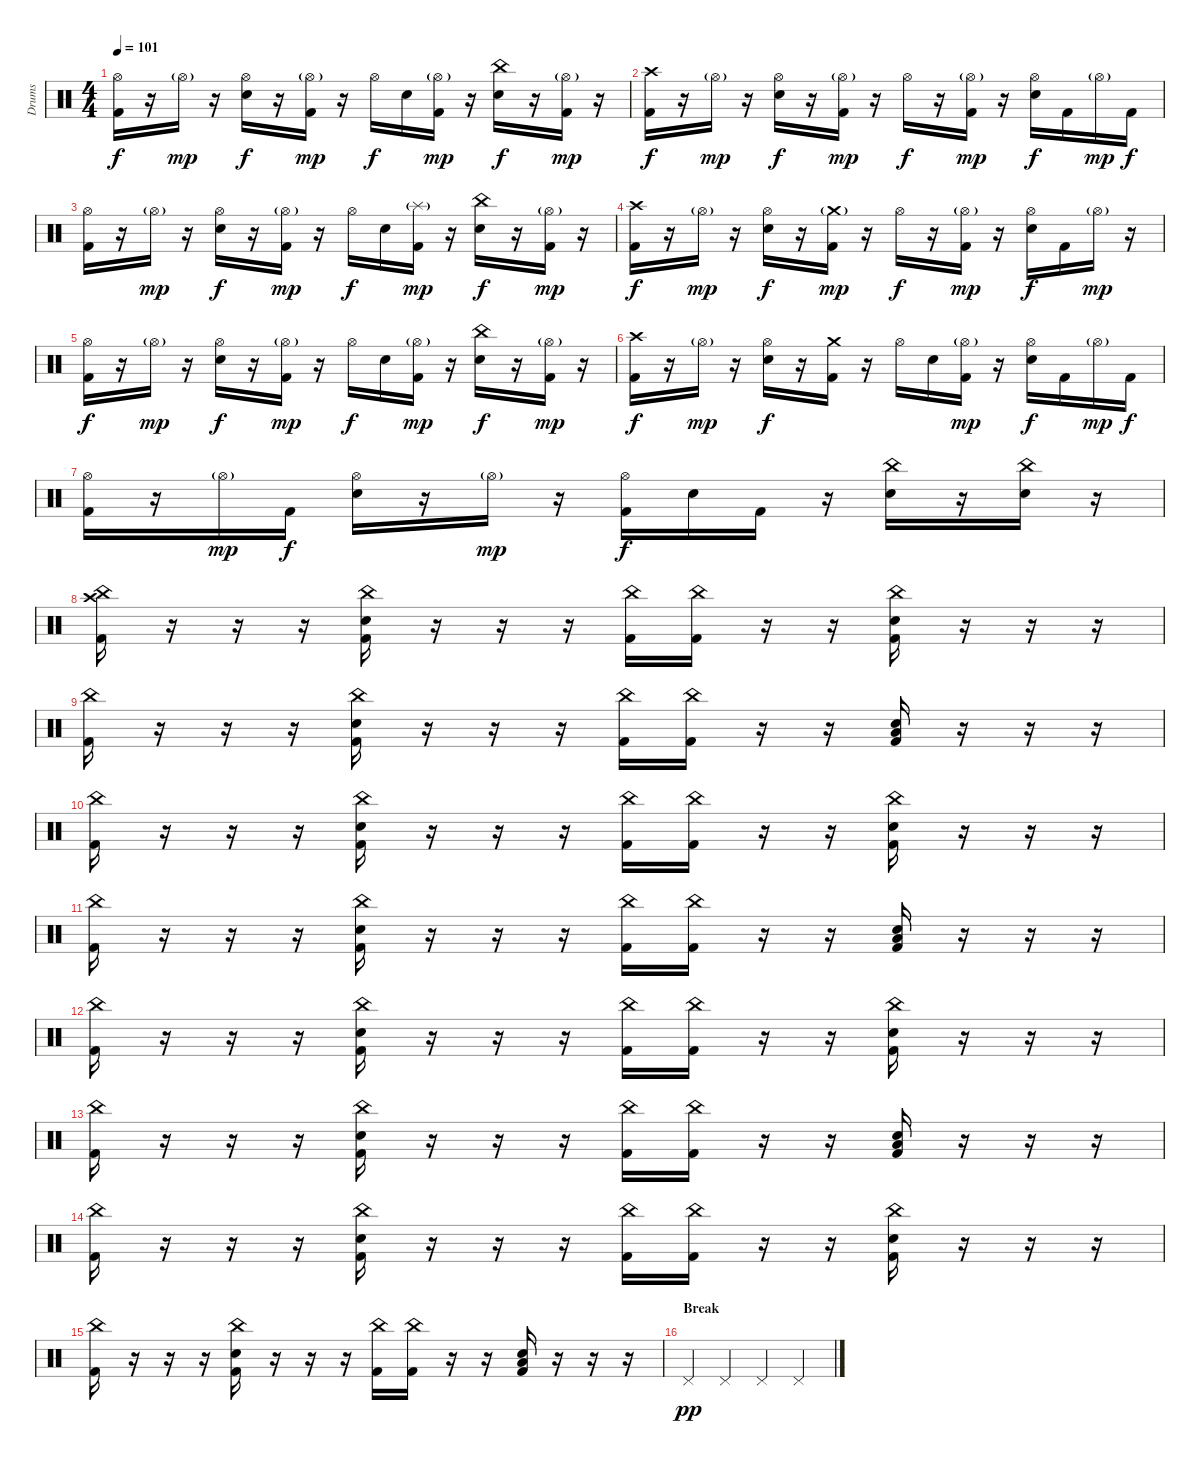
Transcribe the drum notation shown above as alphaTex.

\track ("Drums" "Drums") {instrument percussion}
\staff {score}
\articulation defaults
\ts (4 4)
\tempo 101
\clef neutral
\ks c
("Hi-Hat (open)" "Kick (hit) 2").16{dy f} r.16 "Hi-Hat (open)"{g}.16{dy mp} r.16 ("Hi-Hat (open)" "Electric Snare (hit)").16{dy f} r.16 ("Hi-Hat (open)"{g} "Kick (hit) 2").16{dy mp} r.16 "Hi-Hat (open)".16{dy f} "Electric Snare (hit)".16 ("Hi-Hat (open)"{g} "Kick (hit) 2").16{dy mp} r.16 ("China (hit)" "Electric Snare (hit)").16{dy f} r.16 ("Hi-Hat (open)"{g} "Kick (hit) 2").16{dy mp} r.16 |
("Crash high (hit)" "Kick (hit) 2").16{dy f} r.16 "Hi-Hat (open)"{g}.16{dy mp} r.16 ("Hi-Hat (open)" "Electric Snare (hit)").16{dy f} r.16 ("Hi-Hat (open)"{g} "Kick (hit) 2").16{dy mp} r.16 "Hi-Hat (open)".16{dy f} r.16 ("Hi-Hat (open)"{g} "Kick (hit) 2").16{dy mp} r.16 ("Hi-Hat (open)" "Electric Snare (hit)").16{dy f} "Kick (hit) 2".16 "Hi-Hat (open)"{g}.16{dy mp} "Kick (hit) 2".16{dy f} |
("Hi-Hat (open)" "Kick (hit) 2").16 r.16 "Hi-Hat (open)"{g}.16{dy mp} r.16 ("Hi-Hat (open)" "Electric Snare (hit)").16{dy f} r.16 ("Hi-Hat (open)"{g} "Kick (hit) 2").16{dy mp} r.16 "Hi-Hat (open)".16{dy f} "Electric Snare (hit)".16 ("Splash (hit)"{g} "Kick (hit) 2").16{dy mp} r.16 ("China (hit)" "Electric Snare (hit)").16{dy f} r.16 ("Hi-Hat (open)"{g} "Kick (hit) 2").16{dy mp} r.16 |
("Crash high (hit)" "Kick (hit) 2").16{dy f} r.16 "Hi-Hat (open)"{g}.16{dy mp} r.16 ("Hi-Hat (open)" "Electric Snare (hit)").16{dy f} r.16 ("Crash medium (hit)"{g} "Kick (hit) 2").16{dy mp} r.16 "Hi-Hat (open)".16{dy f} r.16 ("Hi-Hat (open)"{g} "Kick (hit) 2").16{dy mp} r.16 ("Hi-Hat (open)" "Electric Snare (hit)").16{dy f} "Kick (hit) 2".16 "Hi-Hat (open)"{g}.16{dy mp} r.16 |
("Hi-Hat (open)" "Kick (hit) 2").16{dy f} r.16 "Hi-Hat (open)"{g}.16{dy mp} r.16 ("Hi-Hat (open)" "Electric Snare (hit)").16{dy f} r.16 ("Hi-Hat (open)"{g} "Kick (hit) 2").16{dy mp} r.16 "Hi-Hat (open)".16{dy f} "Electric Snare (hit)".16 ("Hi-Hat (open)"{g} "Kick (hit) 2").16{dy mp} r.16 ("China (hit)" "Electric Snare (hit)").16{dy f} r.16 ("Hi-Hat (open)"{g} "Kick (hit) 2").16{dy mp} r.16 |
("Crash high (hit)" "Kick (hit) 2").16{dy f} r.16 "Hi-Hat (open)"{g}.16{dy mp} r.16 ("Hi-Hat (open)" "Electric Snare (hit)").16{dy f} r.16 ("Crash medium (hit)" "Kick (hit) 2").16 r.16 "Hi-Hat (open)".16 "Electric Snare (hit)".16 ("Hi-Hat (open)"{g} "Kick (hit) 2").16{dy mp} r.16 ("Hi-Hat (open)" "Electric Snare (hit)").16{dy f} "Kick (hit) 2".16 "Hi-Hat (open)"{g}.16{dy mp} "Kick (hit) 2".16{dy f} |
("Hi-Hat (open)" "Kick (hit) 2").16 r.16 "Hi-Hat (open)"{g}.16{dy mp} "Kick (hit) 2".16{dy f} ("Hi-Hat (open)" "Electric Snare (hit)").16 r.16 "Hi-Hat (open)"{g}.16{dy mp} r.16 ("Hi-Hat (open)" "Kick (hit) 2").16{dy f} "Electric Snare (hit)".16 "Kick (hit) 2".16 r.16 ("China (hit)" "Electric Snare (hit)").16 r.16 ("China (hit)" "Electric Snare (hit)").16 r.16 |
("China (hit)" "Crash high (hit)" "Kick (hit) 2").16 r.16 r.16 r.16 ("China (hit)" "Electric Snare (hit)" "Kick (hit) 2").16 r.16 r.16 r.16 ("China (hit)" "Kick (hit) 2").16 ("China (hit)" "Kick (hit) 2").16 r.16 r.16 ("China (hit)" "Electric Snare (hit)" "Kick (hit) 2").16 r.16 r.16 r.16 |
("China (hit)" "Kick (hit) 2").16 r.16 r.16 r.16 ("China (hit)" "Electric Snare (hit)" "Kick (hit) 2").16 r.16 r.16 r.16 ("China (hit)" "Kick (hit) 2").16 ("China (hit)" "Kick (hit) 2").16 r.16 r.16 ("Electric Snare (hit)" "Low Floor Tom (hit)" "Kick (hit) 2").16 r.16 r.16 r.16 |
("China (hit)" "Kick (hit) 2").16 r.16 r.16 r.16 ("China (hit)" "Electric Snare (hit)" "Kick (hit) 2").16 r.16 r.16 r.16 ("China (hit)" "Kick (hit) 2").16 ("China (hit)" "Kick (hit) 2").16 r.16 r.16 ("China (hit)" "Electric Snare (hit)" "Kick (hit) 2").16 r.16 r.16 r.16 |
("China (hit)" "Kick (hit) 2").16 r.16 r.16 r.16 ("China (hit)" "Electric Snare (hit)" "Kick (hit) 2").16 r.16 r.16 r.16 ("China (hit)" "Kick (hit) 2").16 ("China (hit)" "Kick (hit) 2").16 r.16 r.16 ("Electric Snare (hit)" "Low Floor Tom (hit)" "Kick (hit) 2").16 r.16 r.16 r.16 |
("China (hit)" "Kick (hit) 2").16 r.16 r.16 r.16 ("China (hit)" "Electric Snare (hit)" "Kick (hit) 2").16 r.16 r.16 r.16 ("China (hit)" "Kick (hit) 2").16 ("China (hit)" "Kick (hit) 2").16 r.16 r.16 ("China (hit)" "Electric Snare (hit)" "Kick (hit) 2").16 r.16 r.16 r.16 |
("China (hit)" "Kick (hit) 2").16 r.16 r.16 r.16 ("China (hit)" "Electric Snare (hit)" "Kick (hit) 2").16 r.16 r.16 r.16 ("China (hit)" "Kick (hit) 2").16 ("China (hit)" "Kick (hit) 2").16 r.16 r.16 ("Electric Snare (hit)" "Low Floor Tom (hit)" "Kick (hit) 2").16 r.16 r.16 r.16 |
("China (hit)" "Kick (hit) 2").16 r.16 r.16 r.16 ("China (hit)" "Electric Snare (hit)" "Kick (hit) 2").16 r.16 r.16 r.16 ("China (hit)" "Kick (hit) 2").16 ("China (hit)" "Kick (hit) 2").16 r.16 r.16 ("China (hit)" "Electric Snare (hit)" "Kick (hit) 2").16 r.16 r.16 r.16 |
("China (hit)" "Kick (hit) 2").16 r.16 r.16 r.16 ("China (hit)" "Electric Snare (hit)" "Kick (hit) 2").16 r.16 r.16 r.16 ("China (hit)" "Kick (hit) 2").16 ("China (hit)" "Kick (hit) 2").16 r.16 r.16 ("Electric Snare (hit)" "Low Floor Tom (hit)" "Kick (hit) 2").16 r.16 r.16 r.16 |
\section ("" "Break")
"Pedal Hi-Hat (hit)".4{dy pp} "Pedal Hi-Hat (hit)".4 "Pedal Hi-Hat (hit)".4 "Pedal Hi-Hat (hit)".4
